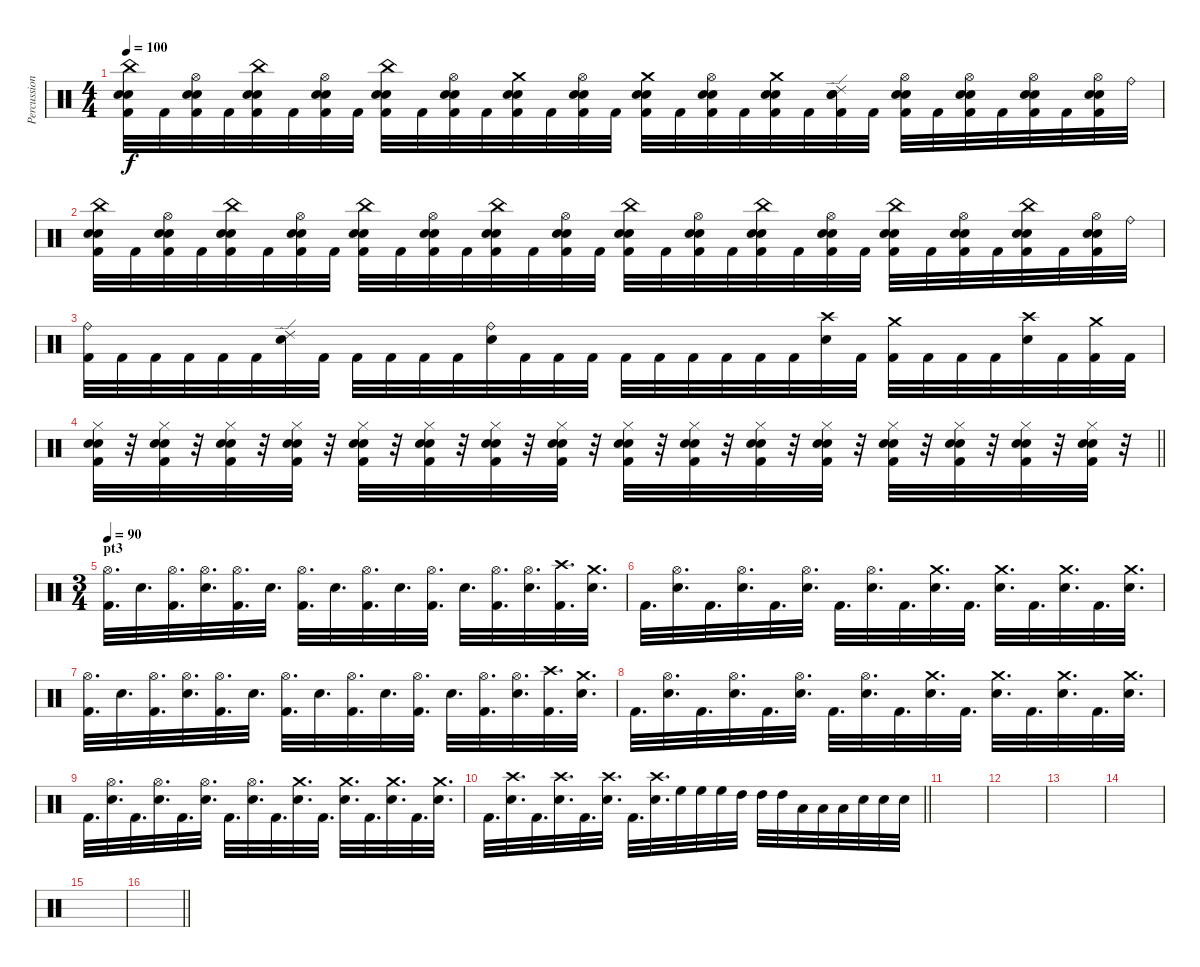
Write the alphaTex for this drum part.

\track ("Percussion" "Percussion") {instrument percussion}
\staff {score}
\articulation defaults
\ts (4 4)
\tempo 100
\clef neutral
\ks c
("Kick (hit) 2" "Electric Snare (hit)" "Snare (hit) 2" "China (hit)").32{dy f} "Kick (hit) 2".32 ("Kick (hit) 2" "Electric Snare (hit)" "Snare (hit) 2" "Hi-Hat (open)").32 "Kick (hit) 2".32 ("Kick (hit) 2" "Electric Snare (hit)" "Snare (hit) 2" "China (hit)").32 "Kick (hit) 2".32 ("Kick (hit) 2" "Electric Snare (hit)" "Snare (hit) 2" "Hi-Hat (open)").32 "Kick (hit) 2".32 ("Kick (hit) 2" "Electric Snare (hit)" "Snare (hit) 2" "China (hit)").32 "Kick (hit) 2".32 ("Kick (hit) 2" "Electric Snare (hit)" "Snare (hit) 2" "Hi-Hat (open)").32 "Kick (hit) 2".32 ("Kick (hit) 2" "Electric Snare (hit)" "Snare (hit) 2" "Crash medium (hit)").32 "Kick (hit) 2".32 ("Kick (hit) 2" "Electric Snare (hit)" "Snare (hit) 2" "Hi-Hat (open)").32 "Kick (hit) 2".32 ("Kick (hit) 2" "Electric Snare (hit)" "Snare (hit) 2" "Crash medium (hit)").32 "Kick (hit) 2".32 ("Kick (hit) 2" "Electric Snare (hit)" "Snare (hit) 2" "Hi-Hat (open)").32 "Kick (hit) 2".32 ("Kick (hit) 2" "Electric Snare (hit)" "Snare (hit) 2" "Crash medium (hit)").32 "Kick (hit) 2".32 ("Kick (hit) 2" "Electric Snare (hit)" "Snare (hit) 2" "Ride (edge) 2").32 "Kick (hit) 2".32 ("Kick (hit) 2" "Electric Snare (hit)" "Snare (hit) 2" "Hi-Hat (open)").32 "Kick (hit) 2".32 ("Kick (hit) 2" "Electric Snare (hit)" "Snare (hit) 2" "Hi-Hat (open)").32 "Kick (hit) 2".32 ("Kick (hit) 2" "Electric Snare (hit)" "Snare (hit) 2" "Hi-Hat (open)").32 "Kick (hit) 2".32 ("Kick (hit) 2" "Electric Snare (hit)" "Snare (hit) 2" "Hi-Hat (open)").32 "Ride (bell)".32 |
("Kick (hit) 2" "Electric Snare (hit)" "Snare (hit) 2" "China (hit)").32 "Kick (hit) 2".32 ("Kick (hit) 2" "Electric Snare (hit)" "Snare (hit) 2" "Hi-Hat (open)").32 "Kick (hit) 2".32 ("Kick (hit) 2" "Electric Snare (hit)" "Snare (hit) 2" "China (hit)").32 "Kick (hit) 2".32 ("Kick (hit) 2" "Electric Snare (hit)" "Snare (hit) 2" "Hi-Hat (open)").32 "Kick (hit) 2".32 ("Kick (hit) 2" "Electric Snare (hit)" "Snare (hit) 2" "China (hit)").32 "Kick (hit) 2".32 ("Kick (hit) 2" "Electric Snare (hit)" "Snare (hit) 2" "Hi-Hat (open)").32 "Kick (hit) 2".32 ("Kick (hit) 2" "Electric Snare (hit)" "Snare (hit) 2" "China (hit)").32 "Kick (hit) 2".32 ("Kick (hit) 2" "Electric Snare (hit)" "Snare (hit) 2" "Hi-Hat (open)").32 "Kick (hit) 2".32 ("Kick (hit) 2" "Electric Snare (hit)" "Snare (hit) 2" "China (hit)").32 "Kick (hit) 2".32 ("Kick (hit) 2" "Electric Snare (hit)" "Snare (hit) 2" "Hi-Hat (open)").32 "Kick (hit) 2".32 ("Kick (hit) 2" "Electric Snare (hit)" "Snare (hit) 2" "China (hit)").32 "Kick (hit) 2".32 ("Kick (hit) 2" "Electric Snare (hit)" "Snare (hit) 2" "Hi-Hat (open)").32 "Kick (hit) 2".32 ("Kick (hit) 2" "Electric Snare (hit)" "Snare (hit) 2" "China (hit)").32 "Kick (hit) 2".32 ("Kick (hit) 2" "Electric Snare (hit)" "Snare (hit) 2" "Hi-Hat (open)").32 "Kick (hit) 2".32 ("Kick (hit) 2" "Electric Snare (hit)" "Snare (hit) 2" "China (hit)").32 "Kick (hit) 2".32 ("Kick (hit) 2" "Electric Snare (hit)" "Snare (hit) 2" "Hi-Hat (open)").32 "Ride (bell)".32 |
("Kick (hit) 2" "Ride (bell)").32 "Kick (hit) 2".32 "Kick (hit) 2".32 "Kick (hit) 2".32 "Kick (hit) 2".32 "Kick (hit) 2".32 ("Snare (hit) 2" "Ride (edge) 2").32 "Kick (hit) 2".32 "Kick (hit) 2".32 "Kick (hit) 2".32 "Kick (hit) 2".32 "Kick (hit) 2".32 ("Snare (hit) 2" "Ride (bell)").32 "Kick (hit) 2".32 "Kick (hit) 2".32 "Kick (hit) 2".32 "Kick (hit) 2".32 "Kick (hit) 2".32 "Kick (hit) 2".32 "Kick (hit) 2".32 "Kick (hit) 2".32 "Kick (hit) 2".32 ("Snare (hit) 2" "Crash high (hit)").32 "Kick (hit) 2".32 ("Kick (hit) 2" "Crash medium (hit)").32 "Kick (hit) 2".32 "Kick (hit) 2".32 "Kick (hit) 2".32 ("Snare (hit) 2" "Crash high (hit)").32 "Kick (hit) 2".32 ("Kick (hit) 2" "Crash medium (hit)").32 "Kick (hit) 2".32 |
\barLineRight lightlight
("Kick (hit) 2" "Electric Snare (hit)" "Snare (hit) 2" "Hi-Hat (closed)").32 r.32 ("Kick (hit) 2" "Electric Snare (hit)" "Snare (hit) 2" "Hi-Hat (closed)").32 r.32 ("Kick (hit) 2" "Electric Snare (hit)" "Snare (hit) 2" "Hi-Hat (closed)").32 r.32 ("Kick (hit) 2" "Electric Snare (hit)" "Snare (hit) 2" "Hi-Hat (closed)").32 r.32 ("Kick (hit) 2" "Electric Snare (hit)" "Snare (hit) 2" "Hi-Hat (closed)").32 r.32 ("Kick (hit) 2" "Electric Snare (hit)" "Snare (hit) 2" "Hi-Hat (closed)").32 r.32 ("Kick (hit) 2" "Electric Snare (hit)" "Snare (hit) 2" "Hi-Hat (closed)").32 r.32 ("Kick (hit) 2" "Electric Snare (hit)" "Snare (hit) 2" "Hi-Hat (closed)").32 r.32 ("Kick (hit) 2" "Electric Snare (hit)" "Snare (hit) 2" "Hi-Hat (closed)").32 r.32 ("Kick (hit) 2" "Electric Snare (hit)" "Snare (hit) 2" "Hi-Hat (closed)").32 r.32 ("Kick (hit) 2" "Electric Snare (hit)" "Snare (hit) 2" "Hi-Hat (closed)").32 r.32 ("Kick (hit) 2" "Electric Snare (hit)" "Snare (hit) 2" "Hi-Hat (closed)").32 r.32 ("Kick (hit) 2" "Electric Snare (hit)" "Snare (hit) 2" "Hi-Hat (closed)").32 r.32 ("Kick (hit) 2" "Electric Snare (hit)" "Snare (hit) 2" "Hi-Hat (closed)").32 r.32 ("Kick (hit) 2" "Electric Snare (hit)" "Snare (hit) 2" "Hi-Hat (closed)").32 r.32 ("Kick (hit) 2" "Electric Snare (hit)" "Snare (hit) 2" "Hi-Hat (closed)").32 r.32 |
\ts (3 4)
\section ("" "pt3")
\tempo 90
("Kick (hit) 2" "Hi-Hat (open)").32{d} "Snare (hit) 2".32{d} ("Kick (hit) 2" "Hi-Hat (open)").32{d} ("Snare (hit) 2" "Hi-Hat (open)").32{d} ("Kick (hit) 2" "Hi-Hat (open)").32{d} "Snare (hit) 2".32{d} ("Kick (hit) 2" "Hi-Hat (open)").32{d} "Snare (hit) 2".32{d} ("Kick (hit) 2" "Hi-Hat (open)").32{d} "Snare (hit) 2".32{d} ("Kick (hit) 2" "Hi-Hat (open)").32{d} "Snare (hit) 2".32{d} ("Kick (hit) 2" "Hi-Hat (open)").32{d} ("Snare (hit) 2" "Hi-Hat (open)").32{d} ("Kick (hit) 2" "Crash high (hit)").32{d} ("Snare (hit) 2" "Crash medium (hit)").32{d} |
"Kick (hit) 2".32{d} ("Snare (hit) 2" "Hi-Hat (open)").32{d} "Kick (hit) 2".32{d} ("Snare (hit) 2" "Hi-Hat (open)").32{d} "Kick (hit) 2".32{d} ("Snare (hit) 2" "Hi-Hat (open)").32{d} "Kick (hit) 2".32{d} ("Snare (hit) 2" "Hi-Hat (open)").32{d} "Kick (hit) 2".32{d} ("Snare (hit) 2" "Crash medium (hit)").32{d} "Kick (hit) 2".32{d} ("Snare (hit) 2" "Crash medium (hit)").32{d} "Kick (hit) 2".32{d} ("Snare (hit) 2" "Crash medium (hit)").32{d} "Kick (hit) 2".32{d} ("Snare (hit) 2" "Crash medium (hit)").32{d} |
("Kick (hit) 2" "Hi-Hat (open)").32{d} "Snare (hit) 2".32{d} ("Kick (hit) 2" "Hi-Hat (open)").32{d} ("Snare (hit) 2" "Hi-Hat (open)").32{d} ("Kick (hit) 2" "Hi-Hat (open)").32{d} "Snare (hit) 2".32{d} ("Kick (hit) 2" "Hi-Hat (open)").32{d} "Snare (hit) 2".32{d} ("Kick (hit) 2" "Hi-Hat (open)").32{d} "Snare (hit) 2".32{d} ("Kick (hit) 2" "Hi-Hat (open)").32{d} "Snare (hit) 2".32{d} ("Kick (hit) 2" "Hi-Hat (open)").32{d} ("Snare (hit) 2" "Hi-Hat (open)").32{d} ("Kick (hit) 2" "Crash high (hit)").32{d} ("Snare (hit) 2" "Crash medium (hit)").32{d} |
"Kick (hit) 2".32{d} ("Snare (hit) 2" "Hi-Hat (open)").32{d} "Kick (hit) 2".32{d} ("Snare (hit) 2" "Hi-Hat (open)").32{d} "Kick (hit) 2".32{d} ("Snare (hit) 2" "Hi-Hat (open)").32{d} "Kick (hit) 2".32{d} ("Snare (hit) 2" "Hi-Hat (open)").32{d} "Kick (hit) 2".32{d} ("Snare (hit) 2" "Crash medium (hit)").32{d} "Kick (hit) 2".32{d} ("Snare (hit) 2" "Crash medium (hit)").32{d} "Kick (hit) 2".32{d} ("Snare (hit) 2" "Crash medium (hit)").32{d} "Kick (hit) 2".32{d} ("Snare (hit) 2" "Crash medium (hit)").32{d} |
"Kick (hit) 2".32{d} ("Snare (hit) 2" "Hi-Hat (open)").32{d} "Kick (hit) 2".32{d} ("Snare (hit) 2" "Hi-Hat (open)").32{d} "Kick (hit) 2".32{d} ("Snare (hit) 2" "Hi-Hat (open)").32{d} "Kick (hit) 2".32{d} ("Snare (hit) 2" "Hi-Hat (open)").32{d} "Kick (hit) 2".32{d} ("Snare (hit) 2" "Crash medium (hit)").32{d} "Kick (hit) 2".32{d} ("Snare (hit) 2" "Crash medium (hit)").32{d} "Kick (hit) 2".32{d} ("Snare (hit) 2" "Crash medium (hit)").32{d} "Kick (hit) 2".32{d} ("Snare (hit) 2" "Crash medium (hit)").32{d} |
\barLineRight lightlight "Kick (hit) 2".32{d}
("Snare (hit) 2" "Crash high (hit)").32{d} "Kick (hit) 2".32{d} ("Snare (hit) 2" "Crash high (hit)").32{d} "Kick (hit) 2".32{d} ("Snare (hit) 2" "Crash high (hit)").32{d} "Kick (hit) 2".32{d} ("Snare (hit) 2" "Crash high (hit)").32{d} "High Floor Tom (hit)".32 "High Floor Tom (hit)".32 "High Floor Tom (hit)".32 "High Tom (hit)".32 "High Tom (hit)".32 "High Tom (hit)".32 "Low Tom (hit)".32 "Low Tom (hit)".32 "Low Tom (hit)".32 "Snare (hit) 2".32 "Snare (hit) 2".32 "Snare (hit) 2".32 |
|
|
|
|
|
\barLineRight lightlight
